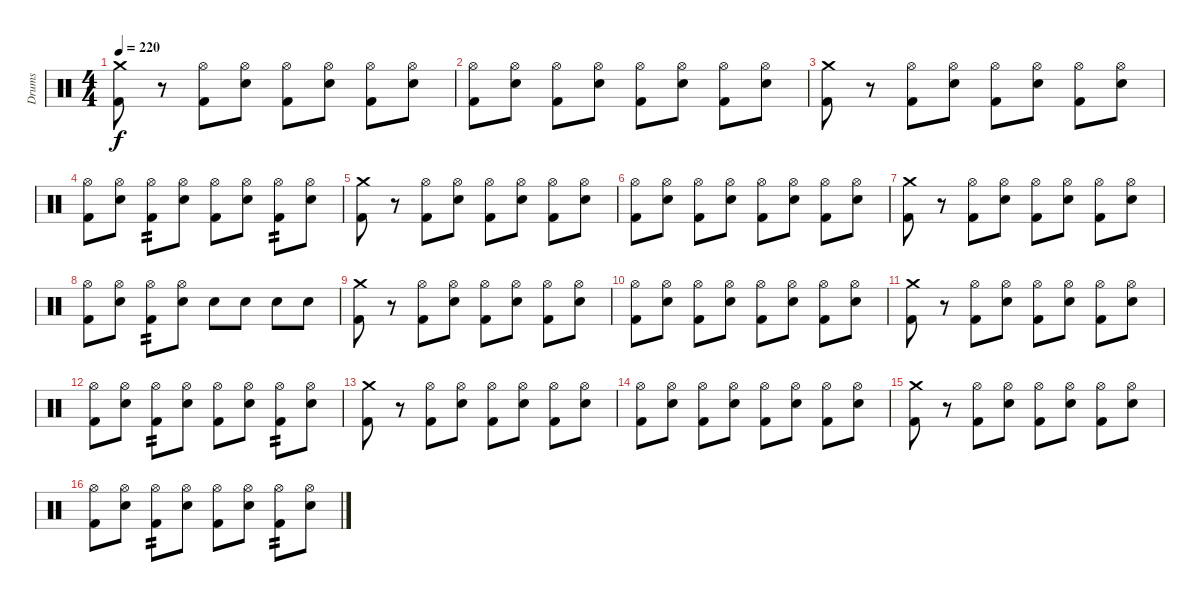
\track ("Drums" "Drums") {instrument percussion}
\staff {score}
\articulation defaults
\ts (4 4)
\tempo 220
\clef neutral
\ks c
("Crash medium (hit)" "Kick (hit) 2").8{dy f} r.8 ("Hi-Hat (open)" "Kick (hit) 2").8 ("Hi-Hat (open)" "Snare (hit) 2").8 ("Hi-Hat (open)" "Kick (hit) 2").8 ("Hi-Hat (open)" "Snare (hit) 2").8 ("Hi-Hat (open)" "Kick (hit) 2").8 ("Hi-Hat (open)" "Snare (hit) 2").8 |
("Hi-Hat (open)" "Kick (hit) 2").8 ("Hi-Hat (open)" "Snare (hit) 2").8 ("Hi-Hat (open)" "Kick (hit) 2").8 ("Hi-Hat (open)" "Snare (hit) 2").8 ("Hi-Hat (open)" "Kick (hit) 2").8 ("Hi-Hat (open)" "Snare (hit) 2").8 ("Hi-Hat (open)" "Kick (hit) 2").8 ("Hi-Hat (open)" "Snare (hit) 2").8 |
("Crash medium (hit)" "Kick (hit) 2").8 r.8 ("Hi-Hat (open)" "Kick (hit) 2").8 ("Hi-Hat (open)" "Snare (hit) 2").8 ("Hi-Hat (open)" "Kick (hit) 2").8 ("Hi-Hat (open)" "Snare (hit) 2").8 ("Hi-Hat (open)" "Kick (hit) 2").8 ("Hi-Hat (open)" "Snare (hit) 2").8 |
("Hi-Hat (open)" "Kick (hit) 2").8 ("Hi-Hat (open)" "Snare (hit) 2").8 ("Hi-Hat (open)" "Kick (hit) 2").8{tp 2} ("Hi-Hat (open)" "Snare (hit) 2").8 ("Hi-Hat (open)" "Kick (hit) 2").8 ("Hi-Hat (open)" "Snare (hit) 2").8 ("Hi-Hat (open)" "Kick (hit) 2").8{tp 2} ("Hi-Hat (open)" "Snare (hit) 2").8 |
("Crash medium (hit)" "Kick (hit) 2").8 r.8 ("Hi-Hat (open)" "Kick (hit) 2").8 ("Hi-Hat (open)" "Snare (hit) 2").8 ("Hi-Hat (open)" "Kick (hit) 2").8 ("Hi-Hat (open)" "Snare (hit) 2").8 ("Hi-Hat (open)" "Kick (hit) 2").8 ("Hi-Hat (open)" "Snare (hit) 2").8 |
("Hi-Hat (open)" "Kick (hit) 2").8 ("Hi-Hat (open)" "Snare (hit) 2").8 ("Hi-Hat (open)" "Kick (hit) 2").8 ("Hi-Hat (open)" "Snare (hit) 2").8 ("Hi-Hat (open)" "Kick (hit) 2").8 ("Hi-Hat (open)" "Snare (hit) 2").8 ("Hi-Hat (open)" "Kick (hit) 2").8 ("Hi-Hat (open)" "Snare (hit) 2").8 |
("Crash medium (hit)" "Kick (hit) 2").8 r.8 ("Hi-Hat (open)" "Kick (hit) 2").8 ("Hi-Hat (open)" "Snare (hit) 2").8 ("Hi-Hat (open)" "Kick (hit) 2").8 ("Hi-Hat (open)" "Snare (hit) 2").8 ("Hi-Hat (open)" "Kick (hit) 2").8 ("Hi-Hat (open)" "Snare (hit) 2").8 |
("Hi-Hat (open)" "Kick (hit) 2").8 ("Hi-Hat (open)" "Snare (hit) 2").8 ("Hi-Hat (open)" "Kick (hit) 2").8{tp 2} ("Hi-Hat (open)" "Snare (hit) 2").8 "Snare (hit) 2".8 "Snare (hit) 2".8 "Snare (hit) 2".8 "Snare (hit) 2".8 |
("Crash medium (hit)" "Kick (hit) 2").8 r.8 ("Hi-Hat (open)" "Kick (hit) 2").8 ("Hi-Hat (open)" "Snare (hit) 2").8 ("Hi-Hat (open)" "Kick (hit) 2").8 ("Hi-Hat (open)" "Snare (hit) 2").8 ("Hi-Hat (open)" "Kick (hit) 2").8 ("Hi-Hat (open)" "Snare (hit) 2").8 |
("Hi-Hat (open)" "Kick (hit) 2").8 ("Hi-Hat (open)" "Snare (hit) 2").8 ("Hi-Hat (open)" "Kick (hit) 2").8 ("Hi-Hat (open)" "Snare (hit) 2").8 ("Hi-Hat (open)" "Kick (hit) 2").8 ("Hi-Hat (open)" "Snare (hit) 2").8 ("Hi-Hat (open)" "Kick (hit) 2").8 ("Hi-Hat (open)" "Snare (hit) 2").8 |
("Crash medium (hit)" "Kick (hit) 2").8 r.8 ("Hi-Hat (open)" "Kick (hit) 2").8 ("Hi-Hat (open)" "Snare (hit) 2").8 ("Hi-Hat (open)" "Kick (hit) 2").8 ("Hi-Hat (open)" "Snare (hit) 2").8 ("Hi-Hat (open)" "Kick (hit) 2").8 ("Hi-Hat (open)" "Snare (hit) 2").8 |
("Hi-Hat (open)" "Kick (hit) 2").8 ("Hi-Hat (open)" "Snare (hit) 2").8 ("Hi-Hat (open)" "Kick (hit) 2").8{tp 2} ("Hi-Hat (open)" "Snare (hit) 2").8 ("Hi-Hat (open)" "Kick (hit) 2").8 ("Hi-Hat (open)" "Snare (hit) 2").8 ("Hi-Hat (open)" "Kick (hit) 2").8{tp 2} ("Hi-Hat (open)" "Snare (hit) 2").8 |
("Crash medium (hit)" "Kick (hit) 2").8 r.8 ("Hi-Hat (open)" "Kick (hit) 2").8 ("Hi-Hat (open)" "Snare (hit) 2").8 ("Hi-Hat (open)" "Kick (hit) 2").8 ("Hi-Hat (open)" "Snare (hit) 2").8 ("Hi-Hat (open)" "Kick (hit) 2").8 ("Hi-Hat (open)" "Snare (hit) 2").8 |
("Hi-Hat (open)" "Kick (hit) 2").8 ("Hi-Hat (open)" "Snare (hit) 2").8 ("Hi-Hat (open)" "Kick (hit) 2").8 ("Hi-Hat (open)" "Snare (hit) 2").8 ("Hi-Hat (open)" "Kick (hit) 2").8 ("Hi-Hat (open)" "Snare (hit) 2").8 ("Hi-Hat (open)" "Kick (hit) 2").8 ("Hi-Hat (open)" "Snare (hit) 2").8 |
("Crash medium (hit)" "Kick (hit) 2").8 r.8 ("Hi-Hat (open)" "Kick (hit) 2").8 ("Hi-Hat (open)" "Snare (hit) 2").8 ("Hi-Hat (open)" "Kick (hit) 2").8 ("Hi-Hat (open)" "Snare (hit) 2").8 ("Hi-Hat (open)" "Kick (hit) 2").8 ("Hi-Hat (open)" "Snare (hit) 2").8 |
("Hi-Hat (open)" "Kick (hit) 2").8 ("Hi-Hat (open)" "Snare (hit) 2").8 ("Hi-Hat (open)" "Kick (hit) 2").8{tp 2} ("Hi-Hat (open)" "Snare (hit) 2").8 ("Hi-Hat (open)" "Kick (hit) 2").8 ("Hi-Hat (open)" "Snare (hit) 2").8 ("Hi-Hat (open)" "Kick (hit) 2").8{tp 2} ("Hi-Hat (open)" "Snare (hit) 2").8
